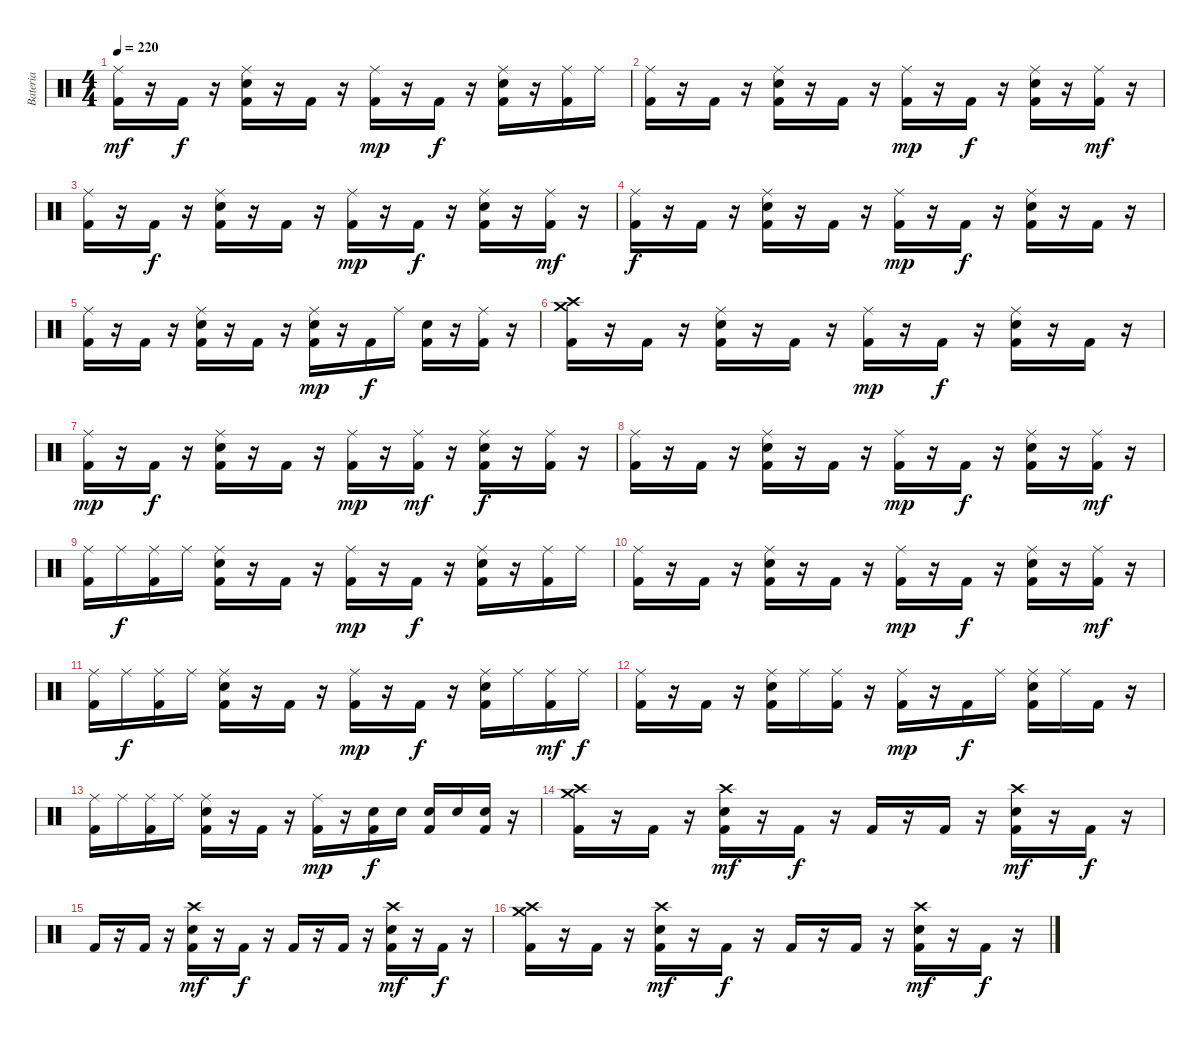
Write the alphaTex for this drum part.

\track ("Bateria" "Bateria") {instrument percussion}
\staff {score}
\articulation defaults
\ts (4 4)
\tempo 220
\clef neutral
\ks c
("Ride (middle)" "Kick (hit) 2").16{dy mf} r.16 "Kick (hit) 2".16{dy f} r.16 ("Ride (middle)" "Electric Snare (hit)" "Kick (hit) 2").16 r.16 "Kick (hit) 2".16 r.16 ("Ride (middle)" "Kick (hit) 2").16{dy mp} r.16 "Kick (hit) 2".16{dy f} r.16 ("Ride (middle)" "Electric Snare (hit)" "Kick (hit) 2").16 r.16 ("Ride (middle)" "Kick (hit) 2").16 "Ride (middle)".16 |
("Ride (middle)" "Kick (hit) 2").16 r.16 "Kick (hit) 2".16 r.16 ("Ride (middle)" "Electric Snare (hit)" "Kick (hit) 2").16 r.16 "Kick (hit) 2".16 r.16 ("Ride (middle)" "Kick (hit) 2").16{dy mp} r.16 "Kick (hit) 2".16{dy f} r.16 ("Ride (middle)" "Electric Snare (hit)" "Kick (hit) 2").16 r.16 ("Ride (middle)" "Kick (hit) 2").16{dy mf} r.16 |
("Ride (middle)" "Kick (hit) 2").16 r.16 "Kick (hit) 2".16{dy f} r.16 ("Ride (middle)" "Electric Snare (hit)" "Kick (hit) 2").16 r.16 "Kick (hit) 2".16 r.16 ("Ride (middle)" "Kick (hit) 2").16{dy mp} r.16 "Kick (hit) 2".16{dy f} r.16 ("Ride (middle)" "Electric Snare (hit)" "Kick (hit) 2").16 r.16 ("Ride (middle)" "Kick (hit) 2").16{dy mf} r.16 |
("Ride (middle)" "Kick (hit) 2").16{dy f} r.16 "Kick (hit) 2".16 r.16 ("Ride (middle)" "Electric Snare (hit)" "Kick (hit) 2").16 r.16 "Kick (hit) 2".16 r.16 ("Ride (middle)" "Kick (hit) 2").16{dy mp} r.16 "Kick (hit) 2".16{dy f} r.16 ("Ride (middle)" "Electric Snare (hit)" "Kick (hit) 2").16 r.16 "Kick (hit) 2".16 r.16 |
("Ride (middle)" "Kick (hit) 2").16 r.16 "Kick (hit) 2".16 r.16 ("Ride (middle)" "Electric Snare (hit)" "Kick (hit) 2").16 r.16 "Kick (hit) 2".16 r.16 ("Ride (middle)" "Electric Snare (hit)" "Kick (hit) 2").16{dy mp} r.16 "Kick (hit) 2".16{dy f} "Ride (middle)".16 ("Electric Snare (hit)" "Kick (hit) 2").16 r.16 ("Ride (middle)" "Kick (hit) 2").16 r.16 |
("Crash medium (hit)" "Crash high (hit)" "Kick (hit) 2").16 r.16 "Kick (hit) 2".16 r.16 ("Ride (middle)" "Electric Snare (hit)" "Kick (hit) 2").16 r.16 "Kick (hit) 2".16 r.16 ("Ride (middle)" "Kick (hit) 2").16{dy mp} r.16 "Kick (hit) 2".16{dy f} r.16 ("Ride (middle)" "Electric Snare (hit)" "Kick (hit) 2").16 r.16 "Kick (hit) 2".16 r.16 |
("Ride (middle)" "Kick (hit) 2").16{dy mp} r.16 "Kick (hit) 2".16{dy f} r.16 ("Ride (middle)" "Electric Snare (hit)" "Kick (hit) 2").16 r.16 "Kick (hit) 2".16 r.16 ("Ride (middle)" "Kick (hit) 2").16{dy mp} r.16 ("Ride (middle)" "Kick (hit) 2").16{dy mf} r.16 ("Ride (middle)" "Electric Snare (hit)" "Kick (hit) 2").16{dy f} r.16 ("Ride (middle)" "Kick (hit) 2").16 r.16 |
("Ride (middle)" "Kick (hit) 2").16 r.16 "Kick (hit) 2".16 r.16 ("Ride (middle)" "Electric Snare (hit)" "Kick (hit) 2").16 r.16 "Kick (hit) 2".16 r.16 ("Ride (middle)" "Kick (hit) 2").16{dy mp} r.16 "Kick (hit) 2".16{dy f} r.16 ("Ride (middle)" "Electric Snare (hit)" "Kick (hit) 2").16 r.16 ("Ride (middle)" "Kick (hit) 2").16{dy mf} r.16 |
("Ride (middle)" "Kick (hit) 2").16 "Ride (middle)".16{dy f} ("Ride (middle)" "Kick (hit) 2").16 "Ride (middle)".16 ("Ride (middle)" "Electric Snare (hit)" "Kick (hit) 2").16 r.16 "Kick (hit) 2".16 r.16 ("Ride (middle)" "Kick (hit) 2").16{dy mp} r.16 "Kick (hit) 2".16{dy f} r.16 ("Ride (middle)" "Electric Snare (hit)" "Kick (hit) 2").16 r.16 ("Ride (middle)" "Kick (hit) 2").16 "Ride (middle)".16 |
("Ride (middle)" "Kick (hit) 2").16 r.16 "Kick (hit) 2".16 r.16 ("Ride (middle)" "Electric Snare (hit)" "Kick (hit) 2").16 r.16 "Kick (hit) 2".16 r.16 ("Ride (middle)" "Kick (hit) 2").16{dy mp} r.16 "Kick (hit) 2".16{dy f} r.16 ("Ride (middle)" "Electric Snare (hit)" "Kick (hit) 2").16 r.16 ("Ride (middle)" "Kick (hit) 2").16{dy mf} r.16 |
("Ride (middle)" "Kick (hit) 2").16 "Ride (middle)".16{dy f} ("Ride (middle)" "Kick (hit) 2").16 "Ride (middle)".16 ("Ride (middle)" "Electric Snare (hit)" "Kick (hit) 2").16 r.16 "Kick (hit) 2".16 r.16 ("Ride (middle)" "Kick (hit) 2").16{dy mp} r.16 "Kick (hit) 2".16{dy f} r.16 ("Ride (middle)" "Electric Snare (hit)" "Kick (hit) 2").16 "Ride (middle)".16 ("Ride (middle)" "Kick (hit) 2").16{dy mf} "Ride (middle)".16{dy f} |
("Ride (middle)" "Kick (hit) 2").16 r.16 "Kick (hit) 2".16 r.16 ("Ride (middle)" "Electric Snare (hit)" "Kick (hit) 2").16 "Ride (middle)".16 ("Ride (middle)" "Kick (hit) 2").16 r.16 ("Ride (middle)" "Kick (hit) 2").16{dy mp} r.16 "Kick (hit) 2".16{dy f} "Ride (middle)".16 ("Ride (middle)" "Electric Snare (hit)" "Kick (hit) 2").16 "Ride (middle)".16 "Kick (hit) 2".16 r.16 |
("Ride (middle)" "Kick (hit) 2").16 "Ride (middle)".16 ("Ride (middle)" "Kick (hit) 2").16 "Ride (middle)".16 ("Ride (middle)" "Electric Snare (hit)" "Kick (hit) 2").16 r.16 "Kick (hit) 2".16 r.16 ("Ride (middle)" "Kick (hit) 2").16{dy mp} r.16 ("Electric Snare (hit)" "Kick (hit) 2").16{dy f} "Electric Snare (hit)".16 ("Electric Snare (hit)" "Kick (hit) 2").16 "Electric Snare (hit)".16 ("Electric Snare (hit)" "Kick (hit) 2").16 r.16 |
("Crash medium (hit)" "Crash high (hit)" "Kick (hit) 2").16 r.16 "Kick (hit) 2".16 r.16 ("Crash high (hit)" "Electric Snare (hit)" "Kick (hit) 2").16{dy mf} r.16 "Kick (hit) 2".16{dy f} r.16 "Kick (hit) 2".16 r.16 "Kick (hit) 2".16 r.16 ("Crash high (hit)" "Electric Snare (hit)" "Kick (hit) 2").16{dy mf} r.16 "Kick (hit) 2".16{dy f} r.16 |
"Kick (hit) 2".16 r.16 "Kick (hit) 2".16 r.16 ("Crash high (hit)" "Electric Snare (hit)" "Kick (hit) 2").16{dy mf} r.16 "Kick (hit) 2".16{dy f} r.16 "Kick (hit) 2".16 r.16 "Kick (hit) 2".16 r.16 ("Crash high (hit)" "Electric Snare (hit)" "Kick (hit) 2").16{dy mf} r.16 "Kick (hit) 2".16{dy f} r.16 |
("Crash medium (hit)" "Crash high (hit)" "Kick (hit) 2").16 r.16 "Kick (hit) 2".16 r.16 ("Crash high (hit)" "Electric Snare (hit)" "Kick (hit) 2").16{dy mf} r.16 "Kick (hit) 2".16{dy f} r.16 "Kick (hit) 2".16 r.16 "Kick (hit) 2".16 r.16 ("Crash high (hit)" "Electric Snare (hit)" "Kick (hit) 2").16{dy mf} r.16 "Kick (hit) 2".16{dy f} r.16
